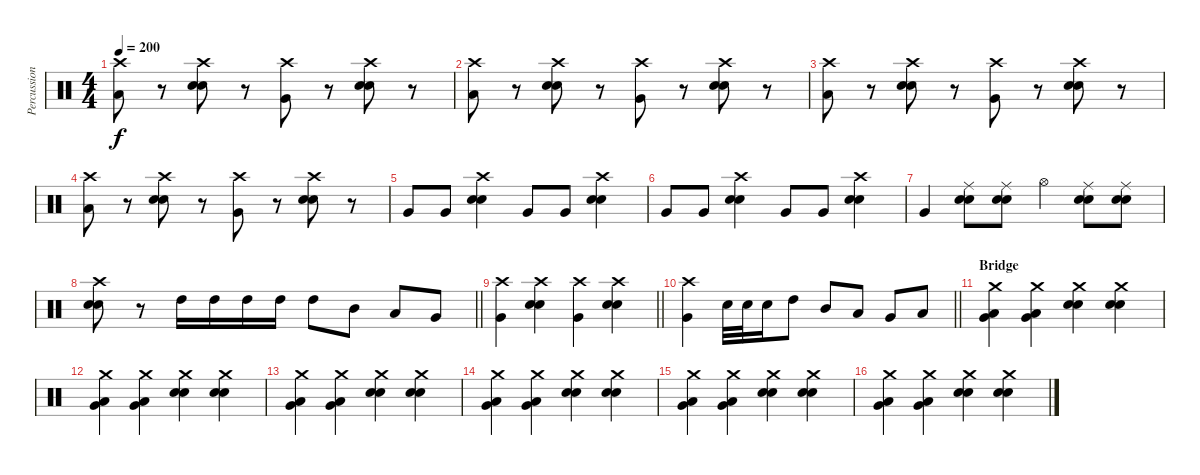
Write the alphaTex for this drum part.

\track ("Percussion" "Percussion") {instrument percussion}
\staff {score}
\articulation defaults
\ts (4 4)
\tempo 200
\clef neutral
\ks c
("Crash high (hit)" "Low Floor Tom (hit)").8{dy f} r.8 ("Crash high (hit)" "Snare (hit) 2" "Electric Snare (hit)").8 r.8 ("Crash high (hit)" "Very Low Tom (hit)").8 r.8 ("Crash high (hit)" "Snare (hit) 2" "Electric Snare (hit)").8 r.8 |
("Crash high (hit)" "Low Floor Tom (hit)").8 r.8 ("Crash high (hit)" "Snare (hit) 2" "Electric Snare (hit)").8 r.8 ("Crash high (hit)" "Very Low Tom (hit)").8 r.8 ("Crash high (hit)" "Snare (hit) 2" "Electric Snare (hit)").8 r.8 |
("Crash high (hit)" "Low Floor Tom (hit)").8 r.8 ("Crash high (hit)" "Snare (hit) 2" "Electric Snare (hit)").8 r.8 ("Crash high (hit)" "Very Low Tom (hit)").8 r.8 ("Crash high (hit)" "Snare (hit) 2" "Electric Snare (hit)").8 r.8 |
("Crash high (hit)" "Low Floor Tom (hit)").8 r.8 ("Crash high (hit)" "Snare (hit) 2" "Electric Snare (hit)").8 r.8 ("Crash high (hit)" "Very Low Tom (hit)").8 r.8 ("Crash high (hit)" "Snare (hit) 2" "Electric Snare (hit)").8 r.8 |
"Very Low Tom (hit)".8 "Very Low Tom (hit)".8 ("Crash high (hit)" "Snare (hit) 2" "Electric Snare (hit)").4 "Very Low Tom (hit)".8 "Very Low Tom (hit)".8 ("Crash high (hit)" "Snare (hit) 2" "Electric Snare (hit)").4 |
"Very Low Tom (hit)".8 "Very Low Tom (hit)".8 ("Crash high (hit)" "Snare (hit) 2" "Electric Snare (hit)").4 "Very Low Tom (hit)".8 "Very Low Tom (hit)".8 ("Crash high (hit)" "Snare (hit) 2" "Electric Snare (hit)").4 |
"Very Low Tom (hit)".4 ("Ride (middle)" "Snare (hit) 2" "Electric Snare (hit)").8 ("Ride (middle)" "Snare (hit) 2" "Electric Snare (hit)").8 "Hi-Hat (open)".4 ("Ride (middle)" "Snare (hit) 2" "Electric Snare (hit)").8 ("Ride (middle)" "Snare (hit) 2" "Electric Snare (hit)").8 |
\barLineRight lightlight
("Crash high (hit)" "Electric Snare (hit)" "Snare (hit) 2").8 r.8 "High Tom (hit)".16 "High Tom (hit)".16 "High Tom (hit)".16 "High Tom (hit)".16 "High Tom (hit)".8 "Mid Tom (hit)".8 "Low Tom (hit)".8 "Very Low Tom (hit)".8 |
\barLineRight lightlight
("Crash high (hit)" "Very Low Tom (hit)").4 ("Crash high (hit)" "Electric Snare (hit)" "Snare (hit) 2").4 ("Crash high (hit)" "Very Low Tom (hit)").4 ("Crash high (hit)" "Electric Snare (hit)" "Snare (hit) 2").4 |
\barLineRight lightlight
("Crash high (hit)" "Very Low Tom (hit)").4 "Snare (hit) 2".32 "Snare (hit) 2".32 "Snare (hit) 2".16 "High Tom (hit)".8 "Mid Tom (hit)".8 "Low Tom (hit)".8 "Very Low Tom (hit)".8 "Low Floor Tom (hit)".8 |
\section ("" "Bridge")
("Crash medium (hit)" "Very Low Tom (hit)" "Low Floor Tom (hit)").4 ("Crash medium (hit)" "Very Low Tom (hit)" "Low Floor Tom (hit)").4 ("Crash medium (hit)" "Snare (hit) 2" "Electric Snare (hit)").4 ("Crash medium (hit)" "Snare (hit) 2" "Electric Snare (hit)").4 |
("Crash medium (hit)" "Very Low Tom (hit)" "Low Floor Tom (hit)").4 ("Crash medium (hit)" "Very Low Tom (hit)" "Low Floor Tom (hit)").4 ("Crash medium (hit)" "Snare (hit) 2" "Electric Snare (hit)").4 ("Crash medium (hit)" "Snare (hit) 2" "Electric Snare (hit)").4 |
("Crash medium (hit)" "Very Low Tom (hit)" "Low Floor Tom (hit)").4 ("Crash medium (hit)" "Very Low Tom (hit)" "Low Floor Tom (hit)").4 ("Crash medium (hit)" "Snare (hit) 2" "Electric Snare (hit)").4 ("Crash medium (hit)" "Snare (hit) 2" "Electric Snare (hit)").4 |
("Crash medium (hit)" "Very Low Tom (hit)" "Low Floor Tom (hit)").4 ("Crash medium (hit)" "Very Low Tom (hit)" "Low Floor Tom (hit)").4 ("Crash medium (hit)" "Snare (hit) 2" "Electric Snare (hit)").4 ("Crash medium (hit)" "Snare (hit) 2" "Electric Snare (hit)").4 |
("Crash medium (hit)" "Very Low Tom (hit)" "Low Floor Tom (hit)").4 ("Crash medium (hit)" "Very Low Tom (hit)" "Low Floor Tom (hit)").4 ("Crash medium (hit)" "Snare (hit) 2" "Electric Snare (hit)").4 ("Crash medium (hit)" "Snare (hit) 2" "Electric Snare (hit)").4 |
("Crash medium (hit)" "Very Low Tom (hit)" "Low Floor Tom (hit)").4 ("Crash medium (hit)" "Very Low Tom (hit)" "Low Floor Tom (hit)").4 ("Crash medium (hit)" "Snare (hit) 2" "Electric Snare (hit)").4 ("Crash medium (hit)" "Snare (hit) 2" "Electric Snare (hit)").4
